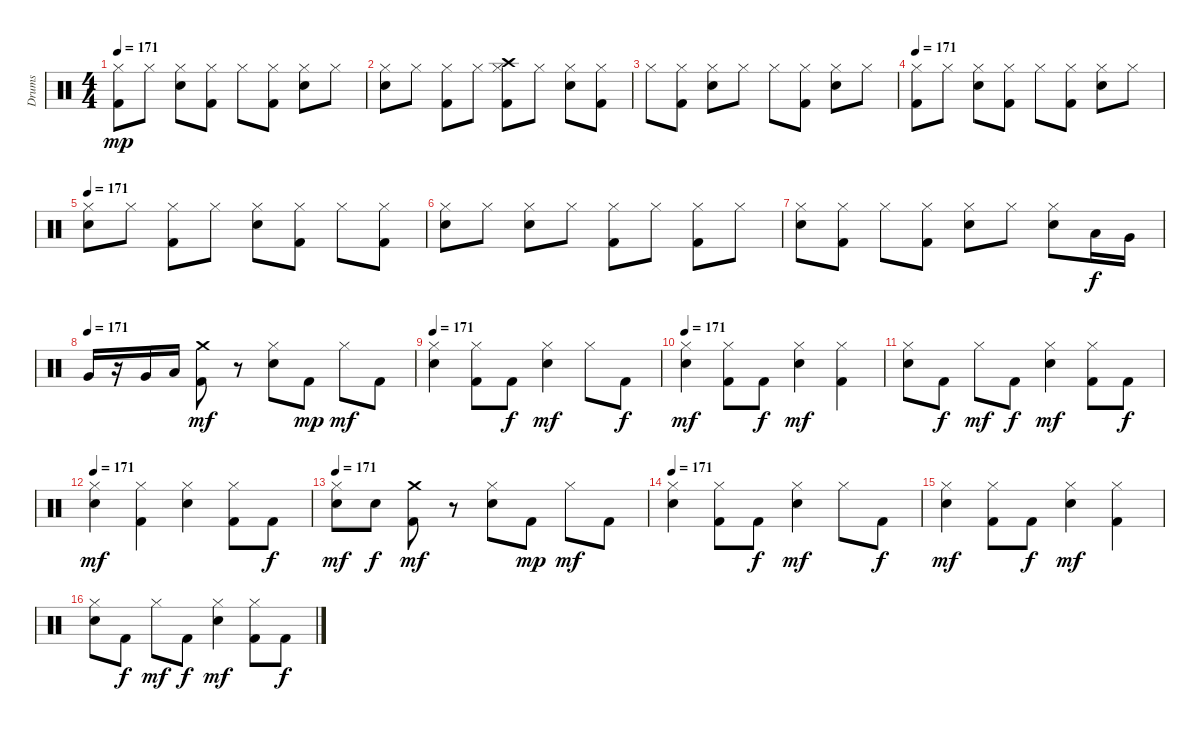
\track ("Drums" "Drums") {instrument percussion}
\staff {score}
\articulation defaults
\ts (4 4)
\tempo 171
\clef neutral
\ks c
("Kick (hit) 2" "Hi-Hat (closed)").8{dy mp} "Hi-Hat (closed)".8 ("Electric Snare (hit)" "Hi-Hat (closed)").8 ("Kick (hit) 2" "Hi-Hat (closed)").8 "Hi-Hat (closed)".8 ("Kick (hit) 2" "Hi-Hat (closed)").8 ("Electric Snare (hit)" "Hi-Hat (closed)").8 "Hi-Hat (closed)".8 |
("Electric Snare (hit)" "Hi-Hat (closed)").8 "Hi-Hat (closed)".8 ("Kick (hit) 2" "Hi-Hat (closed)").8 "Hi-Hat (closed)".8 ("Kick (hit) 2" "Hi-Hat (closed)" "Crash high (hit)").8 "Hi-Hat (closed)".8 ("Electric Snare (hit)" "Hi-Hat (closed)").8 ("Kick (hit) 2" "Hi-Hat (closed)").8 |
"Hi-Hat (closed)".8 ("Kick (hit) 2" "Hi-Hat (closed)").8 ("Electric Snare (hit)" "Hi-Hat (closed)").8 "Hi-Hat (closed)".8 "Hi-Hat (closed)".8 ("Kick (hit) 2" "Hi-Hat (closed)").8 ("Electric Snare (hit)" "Hi-Hat (closed)").8 "Hi-Hat (closed)".8 |
\tempo 171
("Kick (hit) 2" "Hi-Hat (closed)").8 "Hi-Hat (closed)".8 ("Electric Snare (hit)" "Hi-Hat (closed)").8 ("Kick (hit) 2" "Hi-Hat (closed)").8 "Hi-Hat (closed)".8 ("Kick (hit) 2" "Hi-Hat (closed)").8 ("Electric Snare (hit)" "Hi-Hat (closed)").8 "Hi-Hat (closed)".8 |
\tempo 171
("Electric Snare (hit)" "Hi-Hat (closed)").8 "Hi-Hat (closed)".8 ("Kick (hit) 2" "Hi-Hat (closed)").8 "Hi-Hat (closed)".8 ("Electric Snare (hit)" "Hi-Hat (closed)").8 ("Kick (hit) 2" "Hi-Hat (closed)").8 "Hi-Hat (closed)".8 ("Kick (hit) 2" "Hi-Hat (closed)").8 |
("Electric Snare (hit)" "Hi-Hat (closed)").8 "Hi-Hat (closed)".8 ("Electric Snare (hit)" "Hi-Hat (closed)").8 "Hi-Hat (closed)".8 ("Kick (hit) 2" "Hi-Hat (closed)").8 "Hi-Hat (closed)".8 ("Kick (hit) 2" "Hi-Hat (closed)").8 "Hi-Hat (closed)".8 |
("Electric Snare (hit)" "Hi-Hat (closed)").8 ("Kick (hit) 2" "Hi-Hat (closed)").8 "Hi-Hat (closed)".8 ("Kick (hit) 2" "Hi-Hat (closed)").8 ("Electric Snare (hit)" "Hi-Hat (closed)").8 "Hi-Hat (closed)".8 ("Electric Snare (hit)" "Hi-Hat (closed)").8 "Low Tom (hit)".16{dy f} "Very Low Tom (hit)".16 |
\tempo (171)
"Very Low Tom (hit)".16 r.16 "Very Low Tom (hit)".16 "Low Floor Tom (hit)".16 ("Kick (hit) 2" "Crash medium (hit)").8{dy mf} r.8 ("Electric Snare (hit)" "Hi-Hat (closed)").8 "Kick (hit) 2".8{dy mp} "Hi-Hat (closed)".8{dy mf} "Kick (hit) 2".8 |
\tempo 171
("Electric Snare (hit)" "Hi-Hat (closed)").4 ("Kick (hit) 2" "Hi-Hat (closed)").8 "Kick (hit) 2".8{dy f} ("Electric Snare (hit)" "Hi-Hat (closed)").4{dy mf} "Hi-Hat (closed)".8 "Kick (hit) 2".8{dy f} |
\tempo 171
("Electric Snare (hit)" "Hi-Hat (closed)").4{dy mf} ("Kick (hit) 2" "Hi-Hat (closed)").8 "Kick (hit) 2".8{dy f} ("Electric Snare (hit)" "Hi-Hat (closed)").4{dy mf} ("Kick (hit) 2" "Hi-Hat (closed)").4 |
("Electric Snare (hit)" "Hi-Hat (closed)").8 "Kick (hit) 2".8{dy f} "Hi-Hat (closed)".8{dy mf} "Kick (hit) 2".8{dy f} ("Electric Snare (hit)" "Hi-Hat (closed)").4{dy mf} ("Kick (hit) 2" "Hi-Hat (closed)").8 "Kick (hit) 2".8{dy f} |
\tempo 171
("Electric Snare (hit)" "Hi-Hat (closed)").4{dy mf} ("Kick (hit) 2" "Hi-Hat (closed)").4 ("Electric Snare (hit)" "Hi-Hat (closed)").4 ("Kick (hit) 2" "Hi-Hat (closed)").8 "Kick (hit) 2".8{dy f} |
\tempo 171
("Electric Snare (hit)" "Hi-Hat (closed)").8{dy mf} "Electric Snare (hit)".8{dy f} ("Kick (hit) 2" "Crash medium (hit)").8{dy mf} r.8 ("Electric Snare (hit)" "Hi-Hat (closed)").8 "Kick (hit) 2".8{dy mp} "Hi-Hat (closed)".8{dy mf} "Kick (hit) 2".8 |
\tempo 171
("Electric Snare (hit)" "Hi-Hat (closed)").4 ("Kick (hit) 2" "Hi-Hat (closed)").8 "Kick (hit) 2".8{dy f} ("Electric Snare (hit)" "Hi-Hat (closed)").4{dy mf} "Hi-Hat (closed)".8 "Kick (hit) 2".8{dy f} |
("Electric Snare (hit)" "Hi-Hat (closed)").4{dy mf} ("Kick (hit) 2" "Hi-Hat (closed)").8 "Kick (hit) 2".8{dy f} ("Electric Snare (hit)" "Hi-Hat (closed)").4{dy mf} ("Kick (hit) 2" "Hi-Hat (closed)").4 |
("Electric Snare (hit)" "Hi-Hat (closed)").8 "Kick (hit) 2".8{dy f} "Hi-Hat (closed)".8{dy mf} "Kick (hit) 2".8{dy f} ("Electric Snare (hit)" "Hi-Hat (closed)").4{dy mf} ("Kick (hit) 2" "Hi-Hat (closed)").8 "Kick (hit) 2".8{dy f}
